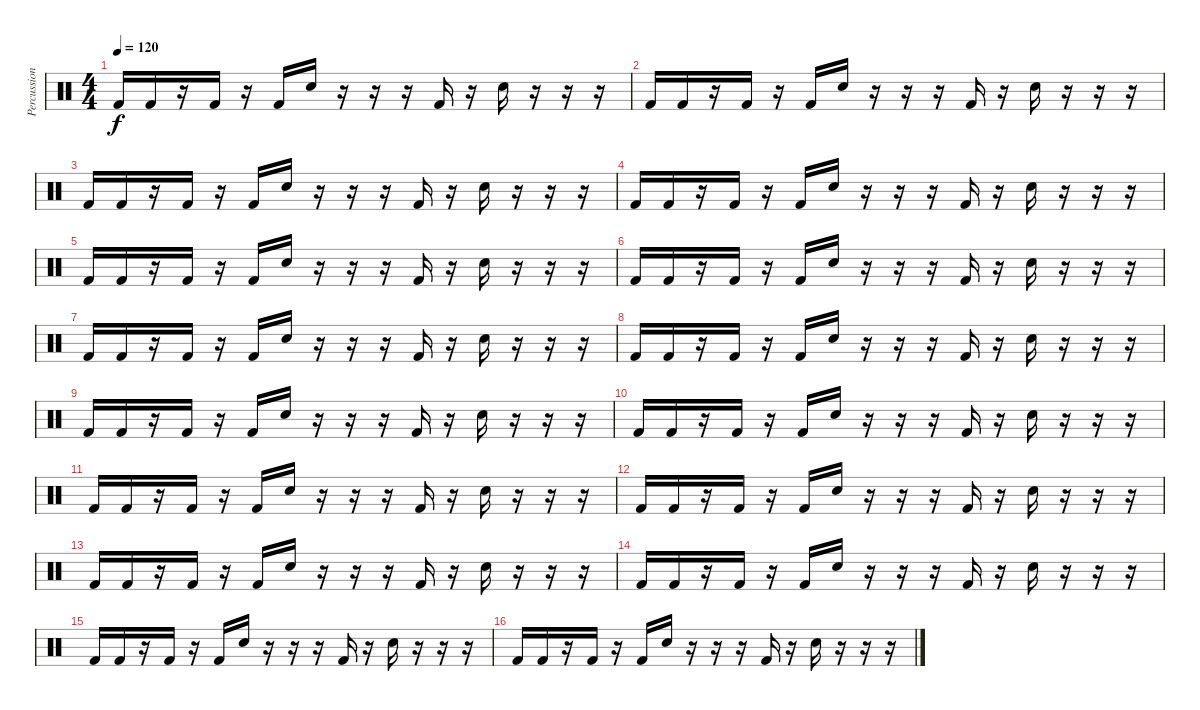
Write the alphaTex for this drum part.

\track ("Percussion" "Percussion") {instrument percussion}
\staff {score}
\articulation defaults
\ts (4 4)
\tempo 120
\clef neutral
\ks c "Kick (hit) 2".16{dy f} "Kick (hit) 2".16
r.16 "Kick (hit) 2".16 r.16 "Kick (hit) 2".16 "Electric Snare (hit)".16 r.16 r.16 r.16 "Kick (hit) 2".16 r.16 "Electric Snare (hit)".16 r.16 r.16 r.16 |
"Kick (hit) 2".16 "Kick (hit) 2".16 r.16 "Kick (hit) 2".16 r.16 "Kick (hit) 2".16 "Electric Snare (hit)".16 r.16 r.16 r.16 "Kick (hit) 2".16 r.16 "Electric Snare (hit)".16 r.16 r.16 r.16 |
"Kick (hit) 2".16 "Kick (hit) 2".16 r.16 "Kick (hit) 2".16 r.16 "Kick (hit) 2".16 "Electric Snare (hit)".16 r.16 r.16 r.16 "Kick (hit) 2".16 r.16 "Electric Snare (hit)".16 r.16 r.16 r.16 |
"Kick (hit) 2".16 "Kick (hit) 2".16 r.16 "Kick (hit) 2".16 r.16 "Kick (hit) 2".16 "Electric Snare (hit)".16 r.16 r.16 r.16 "Kick (hit) 2".16 r.16 "Electric Snare (hit)".16 r.16 r.16 r.16 |
"Kick (hit) 2".16 "Kick (hit) 2".16 r.16 "Kick (hit) 2".16 r.16 "Kick (hit) 2".16 "Electric Snare (hit)".16 r.16 r.16 r.16 "Kick (hit) 2".16 r.16 "Electric Snare (hit)".16 r.16 r.16 r.16 |
"Kick (hit) 2".16 "Kick (hit) 2".16 r.16 "Kick (hit) 2".16 r.16 "Kick (hit) 2".16 "Electric Snare (hit)".16 r.16 r.16 r.16 "Kick (hit) 2".16 r.16 "Electric Snare (hit)".16 r.16 r.16 r.16 |
"Kick (hit) 2".16 "Kick (hit) 2".16 r.16 "Kick (hit) 2".16 r.16 "Kick (hit) 2".16 "Electric Snare (hit)".16 r.16 r.16 r.16 "Kick (hit) 2".16 r.16 "Electric Snare (hit)".16 r.16 r.16 r.16 |
"Kick (hit) 2".16 "Kick (hit) 2".16 r.16 "Kick (hit) 2".16 r.16 "Kick (hit) 2".16 "Electric Snare (hit)".16 r.16 r.16 r.16 "Kick (hit) 2".16 r.16 "Electric Snare (hit)".16 r.16 r.16 r.16 |
"Kick (hit) 2".16 "Kick (hit) 2".16 r.16 "Kick (hit) 2".16 r.16 "Kick (hit) 2".16 "Electric Snare (hit)".16 r.16 r.16 r.16 "Kick (hit) 2".16 r.16 "Electric Snare (hit)".16 r.16 r.16 r.16 |
"Kick (hit) 2".16 "Kick (hit) 2".16 r.16 "Kick (hit) 2".16 r.16 "Kick (hit) 2".16 "Electric Snare (hit)".16 r.16 r.16 r.16 "Kick (hit) 2".16 r.16 "Electric Snare (hit)".16 r.16 r.16 r.16 |
"Kick (hit) 2".16 "Kick (hit) 2".16 r.16 "Kick (hit) 2".16 r.16 "Kick (hit) 2".16 "Electric Snare (hit)".16 r.16 r.16 r.16 "Kick (hit) 2".16 r.16 "Electric Snare (hit)".16 r.16 r.16 r.16 |
"Kick (hit) 2".16 "Kick (hit) 2".16 r.16 "Kick (hit) 2".16 r.16 "Kick (hit) 2".16 "Electric Snare (hit)".16 r.16 r.16 r.16 "Kick (hit) 2".16 r.16 "Electric Snare (hit)".16 r.16 r.16 r.16 |
"Kick (hit) 2".16 "Kick (hit) 2".16 r.16 "Kick (hit) 2".16 r.16 "Kick (hit) 2".16 "Electric Snare (hit)".16 r.16 r.16 r.16 "Kick (hit) 2".16 r.16 "Electric Snare (hit)".16 r.16 r.16 r.16 |
"Kick (hit) 2".16 "Kick (hit) 2".16 r.16 "Kick (hit) 2".16 r.16 "Kick (hit) 2".16 "Electric Snare (hit)".16 r.16 r.16 r.16 "Kick (hit) 2".16 r.16 "Electric Snare (hit)".16 r.16 r.16 r.16 |
"Kick (hit) 2".16 "Kick (hit) 2".16 r.16 "Kick (hit) 2".16 r.16 "Kick (hit) 2".16 "Electric Snare (hit)".16 r.16 r.16 r.16 "Kick (hit) 2".16 r.16 "Electric Snare (hit)".16 r.16 r.16 r.16 |
"Kick (hit) 2".16 "Kick (hit) 2".16 r.16 "Kick (hit) 2".16 r.16 "Kick (hit) 2".16 "Electric Snare (hit)".16 r.16 r.16 r.16 "Kick (hit) 2".16 r.16 "Electric Snare (hit)".16 r.16 r.16 r.16
